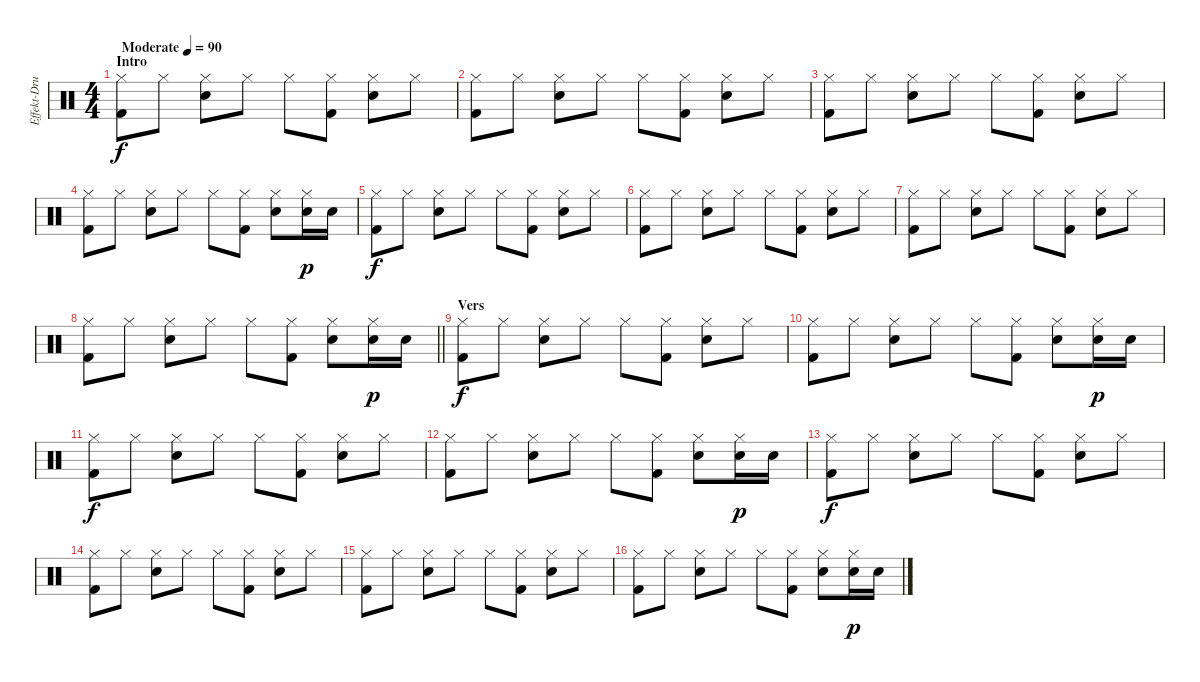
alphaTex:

\track ("Effekt-Drums" "Effekt-Dru") {instrument percussion}
\staff {score}
\articulation defaults
\ts (4 4)
\section ("" "Intro")
\tempo (90 "Moderate")
\clef neutral
\ks c
("Hi-Hat (closed)" "Kick (hit) 2").8{dy f} "Hi-Hat (closed)".8 ("Snare (hit) 2" "Hi-Hat (closed)").8 "Hi-Hat (closed)".8 "Hi-Hat (closed)".8 ("Hi-Hat (closed)" "Kick (hit) 2").8 ("Snare (hit) 2" "Hi-Hat (closed)").8 "Hi-Hat (closed)".8 |
("Hi-Hat (closed)" "Kick (hit) 2").8 "Hi-Hat (closed)".8 ("Snare (hit) 2" "Hi-Hat (closed)").8 "Hi-Hat (closed)".8 "Hi-Hat (closed)".8 ("Hi-Hat (closed)" "Kick (hit) 2").8 ("Snare (hit) 2" "Hi-Hat (closed)").8 "Hi-Hat (closed)".8 |
("Hi-Hat (closed)" "Kick (hit) 2").8 "Hi-Hat (closed)".8 ("Snare (hit) 2" "Hi-Hat (closed)").8 "Hi-Hat (closed)".8 "Hi-Hat (closed)".8 ("Hi-Hat (closed)" "Kick (hit) 2").8 ("Snare (hit) 2" "Hi-Hat (closed)").8 "Hi-Hat (closed)".8 |
("Hi-Hat (closed)" "Kick (hit) 2").8 "Hi-Hat (closed)".8 ("Snare (hit) 2" "Hi-Hat (closed)").8 "Hi-Hat (closed)".8 "Hi-Hat (closed)".8 ("Hi-Hat (closed)" "Kick (hit) 2").8 ("Snare (hit) 2" "Hi-Hat (closed)").8 ("Snare (hit) 2" "Hi-Hat (closed)").16{dy p} "Snare (hit) 2".16 |
("Hi-Hat (closed)" "Kick (hit) 2").8{dy f} "Hi-Hat (closed)".8 ("Snare (hit) 2" "Hi-Hat (closed)").8 "Hi-Hat (closed)".8 "Hi-Hat (closed)".8 ("Hi-Hat (closed)" "Kick (hit) 2").8 ("Snare (hit) 2" "Hi-Hat (closed)").8 "Hi-Hat (closed)".8 |
("Hi-Hat (closed)" "Kick (hit) 2").8 "Hi-Hat (closed)".8 ("Snare (hit) 2" "Hi-Hat (closed)").8 "Hi-Hat (closed)".8 "Hi-Hat (closed)".8 ("Hi-Hat (closed)" "Kick (hit) 2").8 ("Snare (hit) 2" "Hi-Hat (closed)").8 "Hi-Hat (closed)".8 |
("Hi-Hat (closed)" "Kick (hit) 2").8 "Hi-Hat (closed)".8 ("Snare (hit) 2" "Hi-Hat (closed)").8 "Hi-Hat (closed)".8 "Hi-Hat (closed)".8 ("Hi-Hat (closed)" "Kick (hit) 2").8 ("Snare (hit) 2" "Hi-Hat (closed)").8 "Hi-Hat (closed)".8 |
\barLineRight lightlight
("Hi-Hat (closed)" "Kick (hit) 2").8 "Hi-Hat (closed)".8 ("Snare (hit) 2" "Hi-Hat (closed)").8 "Hi-Hat (closed)".8 "Hi-Hat (closed)".8 ("Hi-Hat (closed)" "Kick (hit) 2").8 ("Snare (hit) 2" "Hi-Hat (closed)").8 ("Snare (hit) 2" "Hi-Hat (closed)").16{dy p} "Snare (hit) 2".16 |
\section ("" "Vers")
("Hi-Hat (closed)" "Kick (hit) 2").8{dy f} "Hi-Hat (closed)".8 ("Snare (hit) 2" "Hi-Hat (closed)").8 "Hi-Hat (closed)".8 "Hi-Hat (closed)".8 ("Hi-Hat (closed)" "Kick (hit) 2").8 ("Snare (hit) 2" "Hi-Hat (closed)").8 "Hi-Hat (closed)".8 |
("Hi-Hat (closed)" "Kick (hit) 2").8 "Hi-Hat (closed)".8 ("Snare (hit) 2" "Hi-Hat (closed)").8 "Hi-Hat (closed)".8 "Hi-Hat (closed)".8 ("Hi-Hat (closed)" "Kick (hit) 2").8 ("Snare (hit) 2" "Hi-Hat (closed)").8 ("Snare (hit) 2" "Hi-Hat (closed)").16{dy p} "Snare (hit) 2".16 |
("Hi-Hat (closed)" "Kick (hit) 2").8{dy f} "Hi-Hat (closed)".8 ("Snare (hit) 2" "Hi-Hat (closed)").8 "Hi-Hat (closed)".8 "Hi-Hat (closed)".8 ("Hi-Hat (closed)" "Kick (hit) 2").8 ("Snare (hit) 2" "Hi-Hat (closed)").8 "Hi-Hat (closed)".8 |
("Hi-Hat (closed)" "Kick (hit) 2").8 "Hi-Hat (closed)".8 ("Snare (hit) 2" "Hi-Hat (closed)").8 "Hi-Hat (closed)".8 "Hi-Hat (closed)".8 ("Hi-Hat (closed)" "Kick (hit) 2").8 ("Snare (hit) 2" "Hi-Hat (closed)").8 ("Snare (hit) 2" "Hi-Hat (closed)").16{dy p} "Snare (hit) 2".16 |
("Hi-Hat (closed)" "Kick (hit) 2").8{dy f} "Hi-Hat (closed)".8 ("Snare (hit) 2" "Hi-Hat (closed)").8 "Hi-Hat (closed)".8 "Hi-Hat (closed)".8 ("Hi-Hat (closed)" "Kick (hit) 2").8 ("Snare (hit) 2" "Hi-Hat (closed)").8 "Hi-Hat (closed)".8 |
("Hi-Hat (closed)" "Kick (hit) 2").8 "Hi-Hat (closed)".8 ("Snare (hit) 2" "Hi-Hat (closed)").8 "Hi-Hat (closed)".8 "Hi-Hat (closed)".8 ("Hi-Hat (closed)" "Kick (hit) 2").8 ("Snare (hit) 2" "Hi-Hat (closed)").8 "Hi-Hat (closed)".8 |
("Hi-Hat (closed)" "Kick (hit) 2").8 "Hi-Hat (closed)".8 ("Snare (hit) 2" "Hi-Hat (closed)").8 "Hi-Hat (closed)".8 "Hi-Hat (closed)".8 ("Hi-Hat (closed)" "Kick (hit) 2").8 ("Snare (hit) 2" "Hi-Hat (closed)").8 "Hi-Hat (closed)".8 |
("Hi-Hat (closed)" "Kick (hit) 2").8 "Hi-Hat (closed)".8 ("Snare (hit) 2" "Hi-Hat (closed)").8 "Hi-Hat (closed)".8 "Hi-Hat (closed)".8 ("Hi-Hat (closed)" "Kick (hit) 2").8 ("Snare (hit) 2" "Hi-Hat (closed)").8 ("Snare (hit) 2" "Hi-Hat (closed)").16{dy p} "Snare (hit) 2".16
